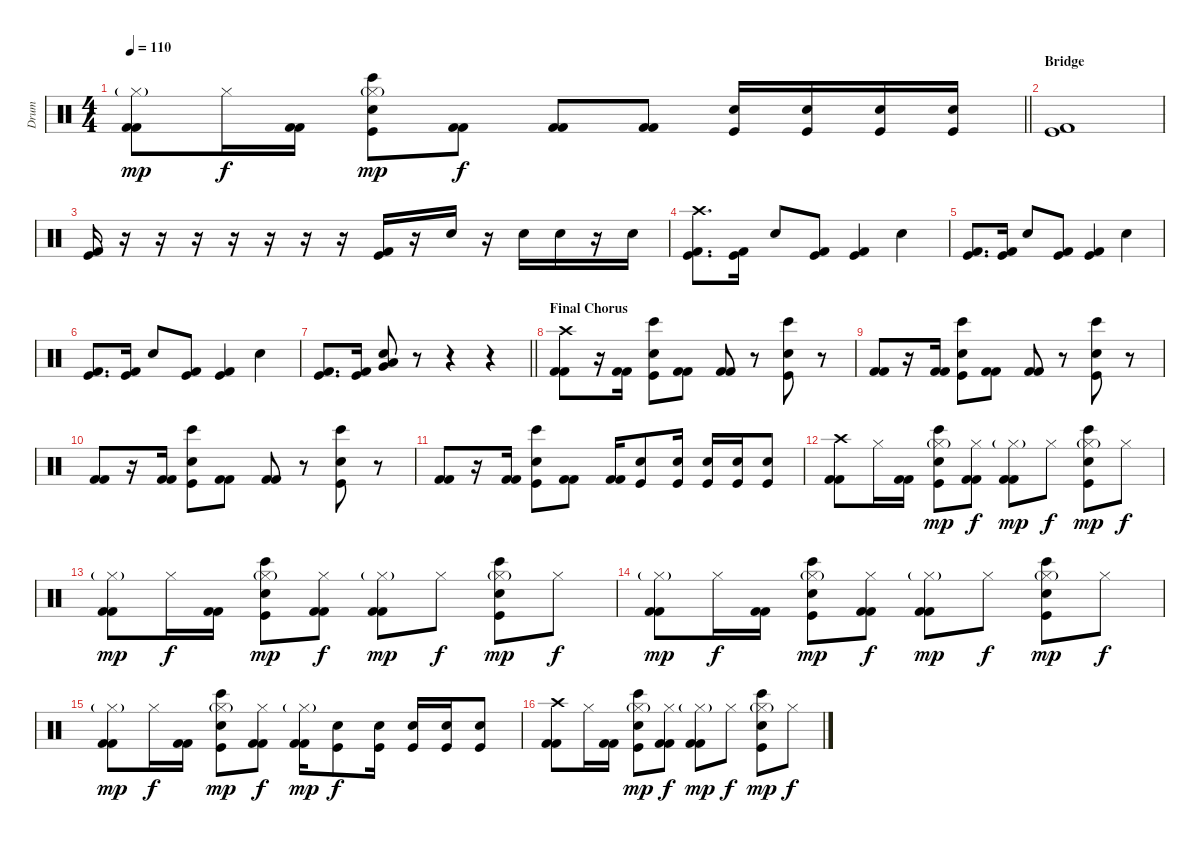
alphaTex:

\track ("Drum" "Drum") {instrument percussion}
\staff {score}
\articulation defaults
\ts (4 4)
\tempo 110
\clef neutral
\barLineRight lightlight
\ks c
("Hi-Hat (closed)"{g} "Kick (hit) 2" "Kick (hit) 2").8{dy mp} "Hi-Hat (closed)".16{dy f} ("Kick (hit) 2" "Kick (hit) 2").16 ("Hi-Hat (closed)"{g} "Bongo High (hit)" "Electric Snare (hit)" "Kick (hit)").8{dy mp} ("Kick (hit) 2" "Kick (hit) 2").8{dy f} ("Kick (hit) 2" "Kick (hit) 2").8 ("Kick (hit) 2" "Kick (hit) 2").8 ("Electric Snare (hit)" "Kick (hit)").16 ("Electric Snare (hit)" "Kick (hit)").16 ("Electric Snare (hit)" "Kick (hit)").16 ("Electric Snare (hit)" "Kick (hit)").16 |
\section ("" "Bridge")
("Kick (hit) 2" "Kick (hit)").1 |
("Kick (hit) 2" "Kick (hit)").16 r.16 r.16 r.16 r.16 r.16 r.16 r.16 ("Kick (hit) 2" "Kick (hit)").16 r.16 "Electric Snare (hit)".16 r.16 "Electric Snare (hit)".16 "Electric Snare (hit)".16 r.16 "Electric Snare (hit)".16 |
("Crash high (hit)" "Kick (hit) 2" "Kick (hit)").8{d} ("Kick (hit) 2" "Kick (hit)").16 "Electric Snare (hit)".8 ("Kick (hit) 2" "Kick (hit)").8 ("Kick (hit) 2" "Kick (hit)").4 "Electric Snare (hit)".4 |
("Kick (hit) 2" "Kick (hit)").8{d} ("Kick (hit) 2" "Kick (hit)").16 "Electric Snare (hit)".8 ("Kick (hit) 2" "Kick (hit)").8 ("Kick (hit) 2" "Kick (hit)").4 "Electric Snare (hit)".4 |
("Kick (hit) 2" "Kick (hit)").8{d} ("Kick (hit) 2" "Kick (hit)").16 "Electric Snare (hit)".8 ("Kick (hit) 2" "Kick (hit)").8 ("Kick (hit) 2" "Kick (hit)").4 "Electric Snare (hit)".4 |
\barLineRight lightlight
("Kick (hit) 2" "Kick (hit)").8{d} ("Kick (hit) 2" "Kick (hit)").16 ("Low Floor Tom (hit)" "Very Low Tom (hit)" "Electric Snare (hit)").8 r.8 r.4 r.4 |
\section ("" "Final Chorus")
("Crash high (hit)" "Kick (hit) 2" "Kick (hit) 2").8 r.16 ("Kick (hit) 2" "Kick (hit) 2").16 ("Bongo High (hit)" "Electric Snare (hit)" "Kick (hit)").8 ("Kick (hit) 2" "Kick (hit) 2").8 ("Kick (hit) 2" "Kick (hit) 2").8 r.8 ("Bongo High (hit)" "Electric Snare (hit)" "Kick (hit)").8 r.8 |
("Kick (hit) 2" "Kick (hit) 2").8 r.16 ("Kick (hit) 2" "Kick (hit) 2").16 ("Bongo High (hit)" "Electric Snare (hit)" "Kick (hit)").8 ("Kick (hit) 2" "Kick (hit) 2").8 ("Kick (hit) 2" "Kick (hit) 2").8 r.8 ("Bongo High (hit)" "Electric Snare (hit)" "Kick (hit)").8 r.8 |
("Kick (hit) 2" "Kick (hit) 2").8 r.16 ("Kick (hit) 2" "Kick (hit) 2").16 ("Bongo High (hit)" "Electric Snare (hit)" "Kick (hit)").8 ("Kick (hit) 2" "Kick (hit) 2").8 ("Kick (hit) 2" "Kick (hit) 2").8 r.8 ("Bongo High (hit)" "Electric Snare (hit)" "Kick (hit)").8 r.8 |
("Kick (hit) 2" "Kick (hit) 2").8 r.16 ("Kick (hit) 2" "Kick (hit) 2").16 ("Bongo High (hit)" "Electric Snare (hit)" "Kick (hit)").8 ("Kick (hit) 2" "Kick (hit) 2").8 ("Kick (hit) 2" "Kick (hit) 2").16 ("Electric Snare (hit)" "Kick (hit)").8 ("Electric Snare (hit)" "Kick (hit)").16 ("Electric Snare (hit)" "Kick (hit)").16 ("Electric Snare (hit)" "Kick (hit)").16 ("Electric Snare (hit)" "Kick (hit)").8 |
("Crash high (hit)" "Kick (hit) 2" "Kick (hit) 2").8 "Hi-Hat (closed)".16 ("Kick (hit) 2" "Kick (hit) 2").16 ("Hi-Hat (closed)"{g} "Bongo High (hit)" "Electric Snare (hit)" "Kick (hit)").8{dy mp} ("Hi-Hat (closed)" "Kick (hit) 2" "Kick (hit) 2").8{dy f} ("Hi-Hat (closed)"{g} "Kick (hit) 2" "Kick (hit) 2").8{dy mp} "Hi-Hat (closed)".8{dy f} ("Hi-Hat (closed)"{g} "Bongo High (hit)" "Electric Snare (hit)" "Kick (hit)").8{dy mp} "Hi-Hat (closed)".8{dy f} |
("Hi-Hat (closed)"{g} "Kick (hit) 2" "Kick (hit) 2").8{dy mp} "Hi-Hat (closed)".16{dy f} ("Kick (hit) 2" "Kick (hit) 2").16 ("Hi-Hat (closed)"{g} "Bongo High (hit)" "Electric Snare (hit)" "Kick (hit)").8{dy mp} ("Hi-Hat (closed)" "Kick (hit) 2" "Kick (hit) 2").8{dy f} ("Hi-Hat (closed)"{g} "Kick (hit) 2" "Kick (hit) 2").8{dy mp} "Hi-Hat (closed)".8{dy f} ("Hi-Hat (closed)"{g} "Bongo High (hit)" "Electric Snare (hit)" "Kick (hit)").8{dy mp} "Hi-Hat (closed)".8{dy f} |
("Hi-Hat (closed)"{g} "Kick (hit) 2" "Kick (hit) 2").8{dy mp} "Hi-Hat (closed)".16{dy f} ("Kick (hit) 2" "Kick (hit) 2").16 ("Hi-Hat (closed)"{g} "Bongo High (hit)" "Electric Snare (hit)" "Kick (hit)").8{dy mp} ("Hi-Hat (closed)" "Kick (hit) 2" "Kick (hit) 2").8{dy f} ("Hi-Hat (closed)"{g} "Kick (hit) 2" "Kick (hit) 2").8{dy mp} "Hi-Hat (closed)".8{dy f} ("Hi-Hat (closed)"{g} "Bongo High (hit)" "Electric Snare (hit)" "Kick (hit)").8{dy mp} "Hi-Hat (closed)".8{dy f} |
("Hi-Hat (closed)"{g} "Kick (hit) 2" "Kick (hit) 2").8{dy mp} "Hi-Hat (closed)".16{dy f} ("Kick (hit) 2" "Kick (hit) 2").16 ("Hi-Hat (closed)"{g} "Bongo High (hit)" "Electric Snare (hit)" "Kick (hit)").8{dy mp} ("Hi-Hat (closed)" "Kick (hit) 2" "Kick (hit) 2").8{dy f} ("Hi-Hat (closed)"{g} "Kick (hit) 2" "Kick (hit) 2").16{dy mp} ("Electric Snare (hit)" "Kick (hit)").8{dy f} ("Electric Snare (hit)" "Kick (hit)").16 ("Electric Snare (hit)" "Kick (hit)").16 ("Electric Snare (hit)" "Kick (hit)").16 ("Electric Snare (hit)" "Kick (hit)").8 |
("Crash high (hit)" "Kick (hit) 2" "Kick (hit) 2").8 "Hi-Hat (closed)".16 ("Kick (hit) 2" "Kick (hit) 2").16 ("Hi-Hat (closed)"{g} "Bongo High (hit)" "Electric Snare (hit)" "Kick (hit)").8{dy mp} ("Hi-Hat (closed)" "Kick (hit) 2" "Kick (hit) 2").8{dy f} ("Hi-Hat (closed)"{g} "Kick (hit) 2" "Kick (hit) 2").8{dy mp} "Hi-Hat (closed)".8{dy f} ("Hi-Hat (closed)"{g} "Bongo High (hit)" "Electric Snare (hit)" "Kick (hit)").8{dy mp} "Hi-Hat (closed)".8{dy f}
